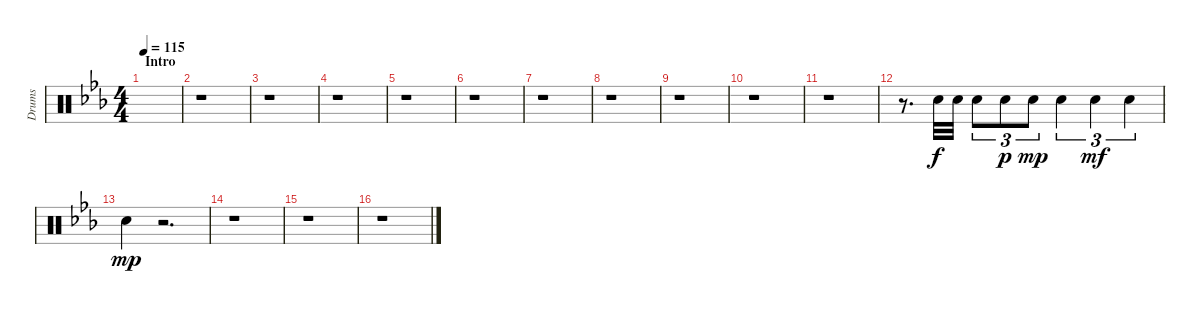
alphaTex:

\track ("Drums" "Drums") {instrument percussion}
\staff {score}
\articulation defaults
\ts (4 4)
\section ("" "Intro")
\tempo 115
\clef neutral
\ks eb
|
r.1 |
r.1 |
r.1 |
r.1 |
r.1 |
r.1 |
r.1 |
r.1 |
r.1 |
r.1{volume 10} |
r.8{d} "Electric Snare (hit)".32 "Electric Snare (hit)".32 "Electric Snare (hit)".8{tu (3 2)} "Electric Snare (hit)".8{tu (3 2) dy p} "Electric Snare (hit)".8{tu (3 2) dy mp} "Electric Snare (hit)".4{tu (3 2)} "Electric Snare (hit)".4{tu (3 2) dy mf} "Electric Snare (hit)".4{tu (3 2)} |
"Electric Snare (hit)".4{dy mp} r.2{d} |
r.1 |
r.1 |
r.1
